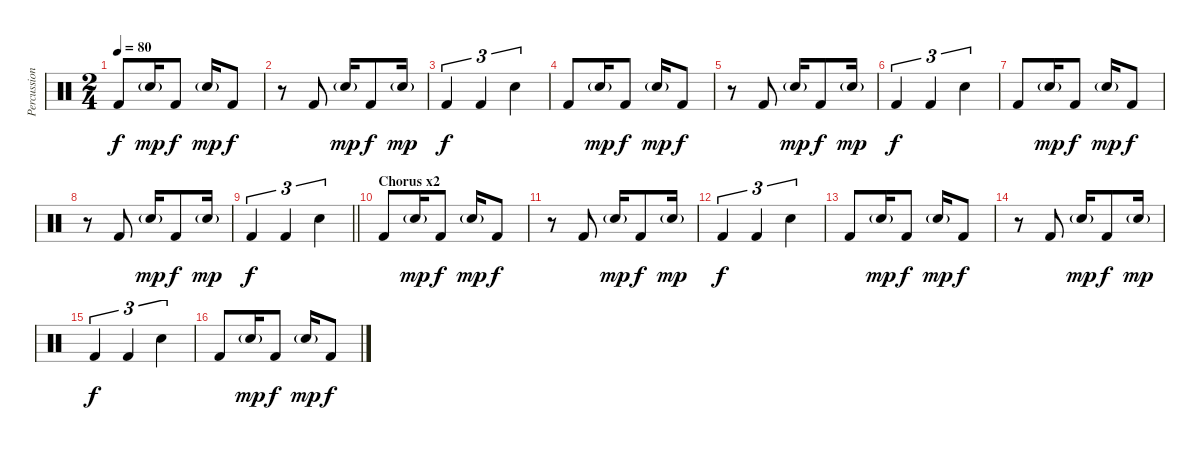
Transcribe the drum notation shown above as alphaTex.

\track ("Percussion" "Percussion") {solo instrument percussion}
\staff {score}
\articulation defaults
\ts (2 4)
\tempo 80
\clef neutral
\ks c "Kick (hit) 2".8{dy f} "Snare (hit) 2"{g}.16{dy mp} "Kick (hit) 2".8{dy f} "Snare (hit) 2"{g}.16{dy mp} "Kick (hit) 2".8{dy f}
|
r.8 "Kick (hit) 2".8 "Snare (hit) 2"{g}.16{dy mp} "Kick (hit) 2".8{dy f} "Snare (hit) 2"{g}.16{dy mp} |
"Kick (hit) 2".4{tu (3 2) dy f} "Kick (hit) 2".4{tu (3 2)} "Snare (hit) 2".4{tu (3 2)} |
"Kick (hit) 2".8 "Snare (hit) 2"{g}.16{dy mp} "Kick (hit) 2".8{dy f} "Snare (hit) 2"{g}.16{dy mp} "Kick (hit) 2".8{dy f} |
r.8 "Kick (hit) 2".8 "Snare (hit) 2"{g}.16{dy mp} "Kick (hit) 2".8{dy f} "Snare (hit) 2"{g}.16{dy mp} |
"Kick (hit) 2".4{tu (3 2) dy f} "Kick (hit) 2".4{tu (3 2)} "Snare (hit) 2".4{tu (3 2)} |
"Kick (hit) 2".8 "Snare (hit) 2"{g}.16{dy mp} "Kick (hit) 2".8{dy f} "Snare (hit) 2"{g}.16{dy mp} "Kick (hit) 2".8{dy f} |
r.8 "Kick (hit) 2".8 "Snare (hit) 2"{g}.16{dy mp} "Kick (hit) 2".8{dy f} "Snare (hit) 2"{g}.16{dy mp} |
\barLineRight lightlight "Kick (hit) 2".4{tu (3 2) dy f} "Kick (hit) 2".4{tu (3 2)} "Snare (hit) 2".4{tu (3 2)}
|
\section ("" "Chorus x2")
"Kick (hit) 2".8 "Snare (hit) 2"{g}.16{dy mp} "Kick (hit) 2".8{dy f} "Snare (hit) 2"{g}.16{dy mp} "Kick (hit) 2".8{dy f} |
r.8 "Kick (hit) 2".8 "Snare (hit) 2"{g}.16{dy mp} "Kick (hit) 2".8{dy f} "Snare (hit) 2"{g}.16{dy mp} |
"Kick (hit) 2".4{tu (3 2) dy f} "Kick (hit) 2".4{tu (3 2)} "Snare (hit) 2".4{tu (3 2)} |
"Kick (hit) 2".8 "Snare (hit) 2"{g}.16{dy mp} "Kick (hit) 2".8{dy f} "Snare (hit) 2"{g}.16{dy mp} "Kick (hit) 2".8{dy f} |
r.8 "Kick (hit) 2".8 "Snare (hit) 2"{g}.16{dy mp} "Kick (hit) 2".8{dy f} "Snare (hit) 2"{g}.16{dy mp} |
"Kick (hit) 2".4{tu (3 2) dy f} "Kick (hit) 2".4{tu (3 2)} "Snare (hit) 2".4{tu (3 2)} |
"Kick (hit) 2".8 "Snare (hit) 2"{g}.16{dy mp} "Kick (hit) 2".8{dy f} "Snare (hit) 2"{g}.16{dy mp} "Kick (hit) 2".8{dy f}
